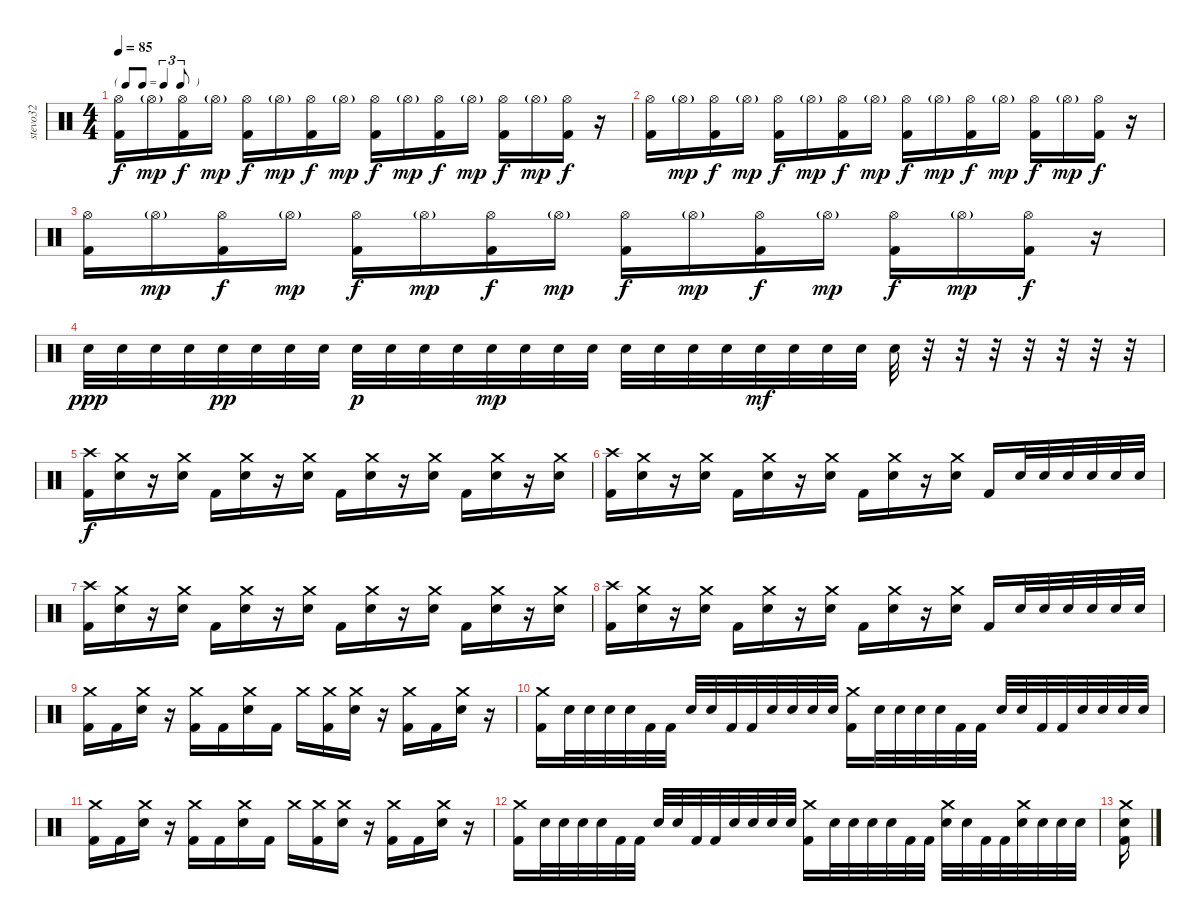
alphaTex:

\track ("stevo32" "stevo32") {instrument percussion}
\staff {score}
\articulation defaults
\ts (4 4)
\tf triplet8th
\tempo 85
\clef neutral
\ks c
("Hi-Hat (open)" "Kick (hit) 2").16{dy f} "Hi-Hat (open)"{g}.16{dy mp} ("Hi-Hat (open)" "Kick (hit) 2").16{dy f} "Hi-Hat (open)"{g}.16{dy mp} ("Hi-Hat (open)" "Kick (hit) 2").16{dy f} "Hi-Hat (open)"{g}.16{dy mp} ("Hi-Hat (open)" "Kick (hit) 2").16{dy f} "Hi-Hat (open)"{g}.16{dy mp} ("Hi-Hat (open)" "Kick (hit) 2").16{dy f} "Hi-Hat (open)"{g}.16{dy mp} ("Hi-Hat (open)" "Kick (hit) 2").16{dy f} "Hi-Hat (open)"{g}.16{dy mp} ("Hi-Hat (open)" "Kick (hit) 2").16{dy f} "Hi-Hat (open)"{g}.16{dy mp} ("Hi-Hat (open)" "Kick (hit) 2").16{dy f} r.16 |
("Hi-Hat (open)" "Kick (hit) 2").16 "Hi-Hat (open)"{g}.16{dy mp} ("Hi-Hat (open)" "Kick (hit) 2").16{dy f} "Hi-Hat (open)"{g}.16{dy mp} ("Hi-Hat (open)" "Kick (hit) 2").16{dy f} "Hi-Hat (open)"{g}.16{dy mp} ("Hi-Hat (open)" "Kick (hit) 2").16{dy f} "Hi-Hat (open)"{g}.16{dy mp} ("Hi-Hat (open)" "Kick (hit) 2").16{dy f} "Hi-Hat (open)"{g}.16{dy mp} ("Hi-Hat (open)" "Kick (hit) 2").16{dy f} "Hi-Hat (open)"{g}.16{dy mp} ("Hi-Hat (open)" "Kick (hit) 2").16{dy f} "Hi-Hat (open)"{g}.16{dy mp} ("Hi-Hat (open)" "Kick (hit) 2").16{dy f} r.16 |
("Hi-Hat (open)" "Kick (hit) 2").16 "Hi-Hat (open)"{g}.16{dy mp} ("Hi-Hat (open)" "Kick (hit) 2").16{dy f} "Hi-Hat (open)"{g}.16{dy mp} ("Hi-Hat (open)" "Kick (hit) 2").16{dy f} "Hi-Hat (open)"{g}.16{dy mp} ("Hi-Hat (open)" "Kick (hit) 2").16{dy f} "Hi-Hat (open)"{g}.16{dy mp} ("Hi-Hat (open)" "Kick (hit) 2").16{dy f} "Hi-Hat (open)"{g}.16{dy mp} ("Hi-Hat (open)" "Kick (hit) 2").16{dy f} "Hi-Hat (open)"{g}.16{dy mp} ("Hi-Hat (open)" "Kick (hit) 2").16{dy f} "Hi-Hat (open)"{g}.16{dy mp} ("Hi-Hat (open)" "Kick (hit) 2").16{dy f} r.16 |
"Electric Snare (hit)".32{dy ppp} "Electric Snare (hit)".32 "Electric Snare (hit)".32 "Electric Snare (hit)".32 "Electric Snare (hit)".32{dy pp} "Electric Snare (hit)".32 "Electric Snare (hit)".32 "Electric Snare (hit)".32 "Electric Snare (hit)".32{dy p} "Electric Snare (hit)".32 "Electric Snare (hit)".32 "Electric Snare (hit)".32 "Electric Snare (hit)".32{dy mp} "Electric Snare (hit)".32 "Electric Snare (hit)".32 "Electric Snare (hit)".32 "Electric Snare (hit)".32 "Electric Snare (hit)".32 "Electric Snare (hit)".32 "Electric Snare (hit)".32 "Electric Snare (hit)".32{dy mf} "Electric Snare (hit)".32 "Electric Snare (hit)".32 "Electric Snare (hit)".32 "Electric Snare (hit)".32 r.32 r.32 r.32 r.32 r.32 r.32 r.32 |
("Crash high (hit)" "Kick (hit) 2").16{dy f} ("Crash medium (hit)" "Electric Snare (hit)").16 r.16 ("Crash medium (hit)" "Electric Snare (hit)").16 "Kick (hit) 2".16 ("Crash medium (hit)" "Electric Snare (hit)").16 r.16 ("Crash medium (hit)" "Electric Snare (hit)").16 "Kick (hit) 2".16 ("Crash medium (hit)" "Electric Snare (hit)").16 r.16 ("Crash medium (hit)" "Electric Snare (hit)").16 "Kick (hit) 2".16 ("Crash medium (hit)" "Electric Snare (hit)").16 r.16 ("Crash medium (hit)" "Electric Snare (hit)").16 |
("Crash high (hit)" "Kick (hit) 2").16 ("Crash medium (hit)" "Electric Snare (hit)").16 r.16 ("Crash medium (hit)" "Electric Snare (hit)").16 "Kick (hit) 2".16 ("Crash medium (hit)" "Electric Snare (hit)").16 r.16 ("Crash medium (hit)" "Electric Snare (hit)").16 "Kick (hit) 2".16 ("Crash medium (hit)" "Electric Snare (hit)").16 r.16 ("Crash medium (hit)" "Electric Snare (hit)").16 "Kick (hit) 2".16 "Electric Snare (hit)".32 "Electric Snare (hit)".32 "Electric Snare (hit)".32 "Electric Snare (hit)".32 "Electric Snare (hit)".32 "Electric Snare (hit)".32 |
("Crash high (hit)" "Kick (hit) 2").16 ("Crash medium (hit)" "Electric Snare (hit)").16 r.16 ("Crash medium (hit)" "Electric Snare (hit)").16 "Kick (hit) 2".16 ("Crash medium (hit)" "Electric Snare (hit)").16 r.16 ("Crash medium (hit)" "Electric Snare (hit)").16 "Kick (hit) 2".16 ("Crash medium (hit)" "Electric Snare (hit)").16 r.16 ("Crash medium (hit)" "Electric Snare (hit)").16 "Kick (hit) 2".16 ("Crash medium (hit)" "Electric Snare (hit)").16 r.16 ("Crash medium (hit)" "Electric Snare (hit)").16 |
("Crash high (hit)" "Kick (hit) 2").16 ("Crash medium (hit)" "Electric Snare (hit)").16 r.16 ("Crash medium (hit)" "Electric Snare (hit)").16 "Kick (hit) 2".16 ("Crash medium (hit)" "Electric Snare (hit)").16 r.16 ("Crash medium (hit)" "Electric Snare (hit)").16 "Kick (hit) 2".16 ("Crash medium (hit)" "Electric Snare (hit)").16 r.16 ("Crash medium (hit)" "Electric Snare (hit)").16 "Kick (hit) 2".16 "Electric Snare (hit)".32 "Electric Snare (hit)".32 "Electric Snare (hit)".32 "Electric Snare (hit)".32 "Electric Snare (hit)".32 "Electric Snare (hit)".32 |
("Crash medium (hit)" "Kick (hit) 2").16 "Kick (hit) 2".16 ("Crash medium (hit)" "Electric Snare (hit)").16 r.16 ("Crash medium (hit)" "Kick (hit) 2").16 "Kick (hit) 2".16 ("Crash medium (hit)" "Electric Snare (hit)").16 "Kick (hit) 2".16 "Crash medium (hit)".16 ("Crash medium (hit)" "Kick (hit) 2").16 ("Crash medium (hit)" "Electric Snare (hit)").16 r.16 ("Crash medium (hit)" "Kick (hit) 2").16 "Kick (hit) 2".16 ("Crash medium (hit)" "Electric Snare (hit)").16 r.16 |
("Crash medium (hit)" "Kick (hit) 2").16 "Electric Snare (hit)".32 "Electric Snare (hit)".32 "Electric Snare (hit)".32 "Electric Snare (hit)".32 "Kick (hit) 2".32 "Kick (hit) 2".32 "Electric Snare (hit)".32 "Electric Snare (hit)".32 "Kick (hit) 2".32 "Kick (hit) 2".32 "Electric Snare (hit)".32 "Electric Snare (hit)".32 "Electric Snare (hit)".32 "Electric Snare (hit)".32 ("Crash medium (hit)" "Kick (hit) 2").16 "Electric Snare (hit)".32 "Electric Snare (hit)".32 "Snare (hit)".32 "Snare (hit)".32 "Kick (hit) 2".32 "Kick (hit) 2".32 "Electric Snare (hit)".32 "Electric Snare (hit)".32 "Kick (hit) 2".32 "Kick (hit) 2".32 "Electric Snare (hit)".32 "Electric Snare (hit)".32 "Electric Snare (hit)".32 "Electric Snare (hit)".32 |
("Crash medium (hit)" "Kick (hit) 2").16 "Kick (hit) 2".16 ("Crash medium (hit)" "Electric Snare (hit)").16 r.16 ("Crash medium (hit)" "Kick (hit) 2").16 "Kick (hit) 2".16 ("Crash medium (hit)" "Electric Snare (hit)").16 "Kick (hit) 2".16 "Crash medium (hit)".16 ("Crash medium (hit)" "Kick (hit) 2").16 ("Crash medium (hit)" "Electric Snare (hit)").16 r.16 ("Crash medium (hit)" "Kick (hit) 2").16 "Kick (hit) 2".16 ("Crash medium (hit)" "Electric Snare (hit)").16 r.16 |
("Crash medium (hit)" "Kick (hit) 2").16 "Electric Snare (hit)".32 "Electric Snare (hit)".32 "Electric Snare (hit)".32 "Electric Snare (hit)".32 "Kick (hit) 2".32 "Kick (hit) 2".32 "Electric Snare (hit)".32 "Electric Snare (hit)".32 "Kick (hit) 2".32 "Kick (hit) 2".32 "Electric Snare (hit)".32 "Electric Snare (hit)".32 "Electric Snare (hit)".32 "Electric Snare (hit)".32 ("Crash medium (hit)" "Kick (hit) 2").16 "Electric Snare (hit)".32 "Electric Snare (hit)".32 "Snare (hit)".32 "Snare (hit)".32 "Kick (hit) 2".32 "Kick (hit) 2".32 ("Crash medium (hit)" "Electric Snare (hit)").32 "Electric Snare (hit)".32 "Kick (hit) 2".32 "Kick (hit) 2".32 ("Crash medium (hit)" "Electric Snare (hit)").32 "Electric Snare (hit)".32 "Electric Snare (hit)".32 "Electric Snare (hit)".32 |
("Electric Snare (hit)" "Crash medium (hit)" "Kick (hit) 2").16
